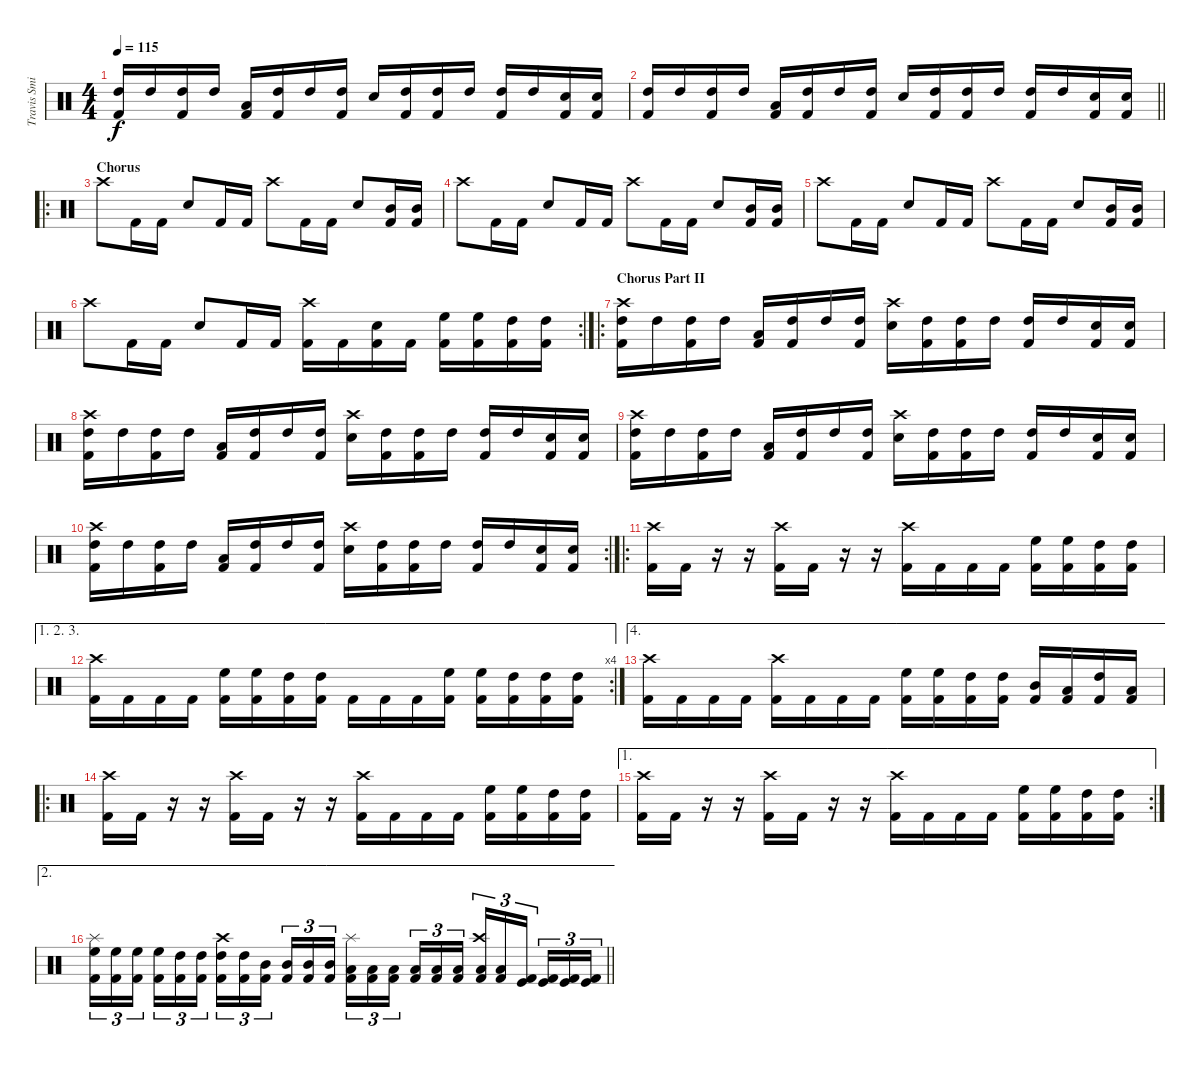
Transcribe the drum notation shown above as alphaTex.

\track ("Travis Smith" "Travis Smi") {instrument percussion}
\staff {score}
\articulation defaults
\ts (4 4)
\tempo 115
\clef neutral
\ks c
("High Tom (hit)" "Kick (hit) 2").16{dy f} "High Tom (hit)".16 ("High Tom (hit)" "Kick (hit) 2").16 "High Tom (hit)".16 ("Low Tom (hit)" "Kick (hit) 2").16 ("High Tom (hit)" "Kick (hit) 2").16 "High Tom (hit)".16 ("High Tom (hit)" "Kick (hit) 2").16 "Electric Snare (hit)".16 ("High Tom (hit)" "Kick (hit) 2").16 ("High Tom (hit)" "Kick (hit) 2").16 "High Tom (hit)".16 ("High Tom (hit)" "Kick (hit) 2").16 "High Tom (hit)".16 ("Electric Snare (hit)" "Kick (hit) 2").16 ("Electric Snare (hit)" "Kick (hit) 2").16 |
\barLineRight lightlight
("High Tom (hit)" "Kick (hit) 2").16 "High Tom (hit)".16 ("High Tom (hit)" "Kick (hit) 2").16 "High Tom (hit)".16 ("Low Tom (hit)" "Kick (hit) 2").16 ("High Tom (hit)" "Kick (hit) 2").16 "High Tom (hit)".16 ("High Tom (hit)" "Kick (hit) 2").16 "Electric Snare (hit)".16 ("High Tom (hit)" "Kick (hit) 2").16 ("High Tom (hit)" "Kick (hit) 2").16 "High Tom (hit)".16 ("High Tom (hit)" "Kick (hit) 2").16 "High Tom (hit)".16 ("Electric Snare (hit)" "Kick (hit) 2").16 ("Electric Snare (hit)" "Kick (hit) 2").16 |
\ro
\section ("" "Chorus")
"Crash high (hit)".8 "Kick (hit) 2".16 "Kick (hit) 2".16 "Electric Snare (hit)".8 "Kick (hit) 2".16 "Kick (hit) 2".16 "Crash high (hit)".8 "Kick (hit) 2".16 "Kick (hit) 2".16 "Electric Snare (hit)".8 ("Mid Tom (hit)" "Kick (hit) 2").16 ("Mid Tom (hit)" "Kick (hit) 2").16 |
"Crash high (hit)".8 "Kick (hit) 2".16 "Kick (hit) 2".16 "Electric Snare (hit)".8 "Kick (hit) 2".16 "Kick (hit) 2".16 "Crash high (hit)".8 "Kick (hit) 2".16 "Kick (hit) 2".16 "Electric Snare (hit)".8 ("Mid Tom (hit)" "Kick (hit) 2").16 ("Mid Tom (hit)" "Kick (hit) 2").16 |
"Crash high (hit)".8 "Kick (hit) 2".16 "Kick (hit) 2".16 "Electric Snare (hit)".8 "Kick (hit) 2".16 "Kick (hit) 2".16 "Crash high (hit)".8 "Kick (hit) 2".16 "Kick (hit) 2".16 "Electric Snare (hit)".8 ("Mid Tom (hit)" "Kick (hit) 2").16 ("Mid Tom (hit)" "Kick (hit) 2").16 |
\rc 2 "Crash high (hit)".8 "Kick (hit) 2".16 "Kick (hit) 2".16 "Electric Snare (hit)".8 "Kick (hit) 2".16 "Kick (hit) 2".16
("Crash high (hit)" "Kick (hit) 2").16 "Kick (hit) 2".16 ("Electric Snare (hit)" "Kick (hit) 2").16 "Kick (hit) 2".16 ("High Floor Tom (hit)" "Kick (hit) 2").16 ("High Floor Tom (hit)" "Kick (hit) 2").16 ("High Tom (hit)" "Kick (hit) 2").16 ("High Tom (hit)" "Kick (hit) 2").16 |
\ro
\section ("" "Chorus Part II")
("Crash high (hit)" "High Tom (hit)" "Kick (hit) 2").16 "High Tom (hit)".16 ("High Tom (hit)" "Kick (hit) 2").16 "High Tom (hit)".16 ("Low Tom (hit)" "Kick (hit) 2").16 ("High Tom (hit)" "Kick (hit) 2").16 "High Tom (hit)".16 ("High Tom (hit)" "Kick (hit) 2").16 ("Crash high (hit)" "Electric Snare (hit)").16 ("High Tom (hit)" "Kick (hit) 2").16 ("High Tom (hit)" "Kick (hit) 2").16 "High Tom (hit)".16 ("High Tom (hit)" "Kick (hit) 2").16 "High Tom (hit)".16 ("Electric Snare (hit)" "Kick (hit) 2").16 ("Electric Snare (hit)" "Kick (hit) 2").16 |
("Crash high (hit)" "High Tom (hit)" "Kick (hit) 2").16 "High Tom (hit)".16 ("High Tom (hit)" "Kick (hit) 2").16 "High Tom (hit)".16 ("Low Tom (hit)" "Kick (hit) 2").16 ("High Tom (hit)" "Kick (hit) 2").16 "High Tom (hit)".16 ("High Tom (hit)" "Kick (hit) 2").16 ("Crash high (hit)" "Electric Snare (hit)").16 ("High Tom (hit)" "Kick (hit) 2").16 ("High Tom (hit)" "Kick (hit) 2").16 "High Tom (hit)".16 ("High Tom (hit)" "Kick (hit) 2").16 "High Tom (hit)".16 ("Electric Snare (hit)" "Kick (hit) 2").16 ("Electric Snare (hit)" "Kick (hit) 2").16 |
("Crash high (hit)" "High Tom (hit)" "Kick (hit) 2").16 "High Tom (hit)".16 ("High Tom (hit)" "Kick (hit) 2").16 "High Tom (hit)".16 ("Low Tom (hit)" "Kick (hit) 2").16 ("High Tom (hit)" "Kick (hit) 2").16 "High Tom (hit)".16 ("High Tom (hit)" "Kick (hit) 2").16 ("Crash high (hit)" "Electric Snare (hit)").16 ("High Tom (hit)" "Kick (hit) 2").16 ("High Tom (hit)" "Kick (hit) 2").16 "High Tom (hit)".16 ("High Tom (hit)" "Kick (hit) 2").16 "High Tom (hit)".16 ("Electric Snare (hit)" "Kick (hit) 2").16 ("Electric Snare (hit)" "Kick (hit) 2").16 |
\rc 2
("Crash high (hit)" "High Tom (hit)" "Kick (hit) 2").16 "High Tom (hit)".16 ("High Tom (hit)" "Kick (hit) 2").16 "High Tom (hit)".16 ("Low Tom (hit)" "Kick (hit) 2").16 ("High Tom (hit)" "Kick (hit) 2").16 "High Tom (hit)".16 ("High Tom (hit)" "Kick (hit) 2").16 ("Crash high (hit)" "Electric Snare (hit)").16 ("High Tom (hit)" "Kick (hit) 2").16 ("High Tom (hit)" "Kick (hit) 2").16 "High Tom (hit)".16 ("High Tom (hit)" "Kick (hit) 2").16 "High Tom (hit)".16 ("Electric Snare (hit)" "Kick (hit) 2").16 ("Electric Snare (hit)" "Kick (hit) 2").16 |
\ro
("Crash high (hit)" "Kick (hit) 2").16 "Kick (hit) 2".16 r.16 r.16 ("Crash high (hit)" "Kick (hit) 2").16 "Kick (hit) 2".16 r.16 r.16 ("Crash high (hit)" "Kick (hit) 2").16 "Kick (hit) 2".16 "Kick (hit) 2".16 "Kick (hit) 2".16 ("High Floor Tom (hit)" "Kick (hit) 2").16 ("High Floor Tom (hit)" "Kick (hit) 2").16 ("High Tom (hit)" "Kick (hit) 2").16 ("High Tom (hit)" "Kick (hit) 2").16 |
\ae (1 2 3)
\rc 4
("Crash high (hit)" "Kick (hit) 2").16 "Kick (hit) 2".16 "Kick (hit) 2".16 "Kick (hit) 2".16 ("High Floor Tom (hit)" "Kick (hit) 2").16 ("High Floor Tom (hit)" "Kick (hit) 2").16 ("High Tom (hit)" "Kick (hit) 2").16 ("High Tom (hit)" "Kick (hit) 2").16 "Kick (hit) 2".16 "Kick (hit) 2".16 "Kick (hit) 2".16 ("High Floor Tom (hit)" "Kick (hit) 2").16 ("High Floor Tom (hit)" "Kick (hit) 2").16 ("High Tom (hit)" "Kick (hit) 2").16 ("High Tom (hit)" "Kick (hit) 2").16 ("High Tom (hit)" "Kick (hit) 2").16 |
\ae 4
("Crash high (hit)" "Kick (hit) 2").16 "Kick (hit) 2".16 "Kick (hit) 2".16 "Kick (hit) 2".16 ("Crash high (hit)" "Kick (hit) 2").16 "Kick (hit) 2".16 "Kick (hit) 2".16 "Kick (hit) 2".16 ("High Floor Tom (hit)" "Kick (hit) 2").16 ("High Floor Tom (hit)" "Kick (hit) 2").16 ("High Tom (hit)" "Kick (hit) 2").16 ("High Tom (hit)" "Kick (hit) 2").16 ("Mid Tom (hit)" "Kick (hit) 2").16 ("Low Tom (hit)" "Kick (hit) 2").16 ("High Tom (hit)" "Kick (hit) 2").16 ("Low Tom (hit)" "Kick (hit) 2").16 |
\ro
("Crash high (hit)" "Kick (hit) 2").16 "Kick (hit) 2".16 r.16 r.16 ("Crash high (hit)" "Kick (hit) 2").16 "Kick (hit) 2".16 r.16 r.16 ("Crash high (hit)" "Kick (hit) 2").16 "Kick (hit) 2".16 "Kick (hit) 2".16 "Kick (hit) 2".16 ("High Floor Tom (hit)" "Kick (hit) 2").16 ("High Floor Tom (hit)" "Kick (hit) 2").16 ("High Tom (hit)" "Kick (hit) 2").16 ("High Tom (hit)" "Kick (hit) 2").16 |
\ae 1
\rc 2
("Crash high (hit)" "Kick (hit) 2").16 "Kick (hit) 2".16 r.16 r.16 ("Crash high (hit)" "Kick (hit) 2").16 "Kick (hit) 2".16 r.16 r.16 ("Crash high (hit)" "Kick (hit) 2").16 "Kick (hit) 2".16 "Kick (hit) 2".16 "Kick (hit) 2".16 ("High Floor Tom (hit)" "Kick (hit) 2").16 ("High Floor Tom (hit)" "Kick (hit) 2").16 ("High Tom (hit)" "Kick (hit) 2").16 ("High Tom (hit)" "Kick (hit) 2").16 |
\ae 2
\barLineRight lightlight
("Splash (hit)" "High Floor Tom (hit)" "Kick (hit) 2").16{tu (3 2)} ("High Floor Tom (hit)" "Kick (hit) 2").16{tu (3 2)} ("High Floor Tom (hit)" "Kick (hit) 2").16{tu (3 2)} ("High Floor Tom (hit)" "Kick (hit) 2").16{tu (3 2)} ("High Tom (hit)" "Kick (hit) 2").16{tu (3 2)} ("High Tom (hit)" "Kick (hit) 2").16{tu (3 2)} ("Crash high (hit)" "High Tom (hit)" "Kick (hit) 2").16{tu (3 2)} ("High Tom (hit)" "Kick (hit) 2").16{tu (3 2)} ("Mid Tom (hit)" "Kick (hit) 2").16{tu (3 2)} ("Mid Tom (hit)" "Kick (hit) 2").16{tu (3 2)} ("Mid Tom (hit)" "Kick (hit) 2").16{tu (3 2)} ("Mid Tom (hit)" "Kick (hit) 2").16{tu (3 2)} ("Splash (hit)" "Low Tom (hit)" "Kick (hit) 2").16{tu (3 2)} ("Low Tom (hit)" "Kick (hit) 2").16{tu (3 2)} ("Low Tom (hit)" "Kick (hit) 2").16{tu (3 2)} ("Low Tom (hit)" "Kick (hit) 2").16{tu (3 2)} ("Low Floor Tom (hit)" "Kick (hit) 2").16{tu (3 2)} ("Low Floor Tom (hit)" "Kick (hit) 2").16{tu (3 2)} ("Crash high (hit)" "Low Floor Tom (hit)" "Kick (hit) 2").16{tu (3 2)} ("Low Floor Tom (hit)" "Kick (hit) 2").16{tu (3 2)} ("Kick (hit)" "Kick (hit) 2").16{tu (3 2)} ("Kick (hit)" "Kick (hit) 2").16{tu (3 2)} ("Kick (hit)" "Kick (hit) 2").16{tu (3 2)} ("Kick (hit)" "Kick (hit) 2").16{tu (3 2)}
